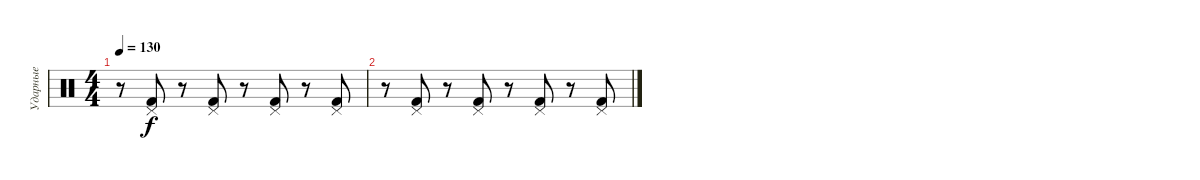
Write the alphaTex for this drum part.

\track ("Ударные" "Ударные") {instrument percussion}
\staff {score}
\articulation defaults
\ts (4 4)
\tempo 130
\clef neutral
\ks c
r.8{dy f} ("Kick (hit) 2" "Pedal Hi-Hat (hit)").8 r.8 ("Kick (hit) 2" "Pedal Hi-Hat (hit)").8 r.8 ("Kick (hit) 2" "Pedal Hi-Hat (hit)").8 r.8 ("Kick (hit) 2" "Pedal Hi-Hat (hit)").8 |
r.8 ("Kick (hit) 2" "Pedal Hi-Hat (hit)").8 r.8 ("Kick (hit) 2" "Pedal Hi-Hat (hit)").8 r.8 ("Kick (hit) 2" "Pedal Hi-Hat (hit)").8 r.8 ("Kick (hit) 2" "Pedal Hi-Hat (hit)").8
